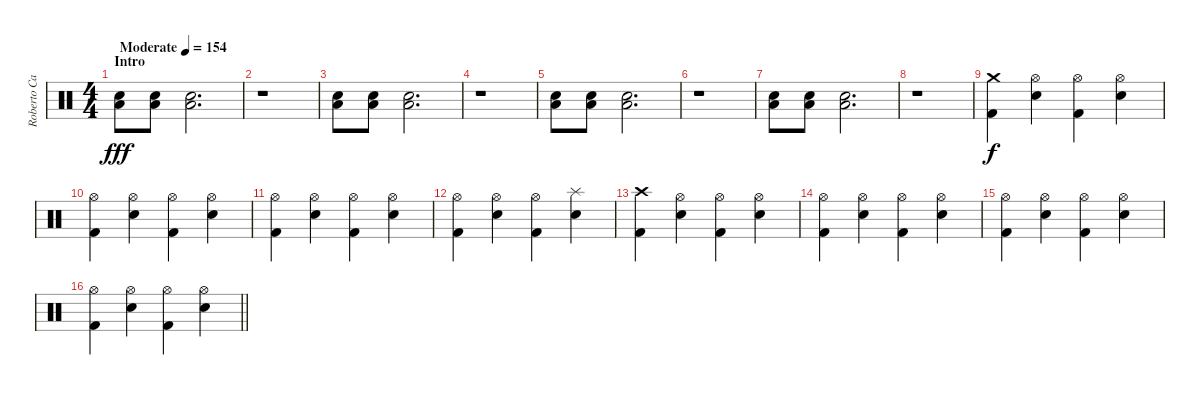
\track ("Roberto Cappa - Drums" "Roberto Ca") {instrument percussion}
\staff
\articulation defaults
\ts (4 4)
\section ("" "Intro")
\tempo (154 "Moderate")
\clef neutral
\ks c
("Electric Snare (hit)" "Low Floor Tom (hit)").8{dy fff} ("Electric Snare (hit)" "Low Floor Tom (hit)").8 ("Electric Snare (hit)" "Low Floor Tom (hit)").2{d} |
r.1 |
("Electric Snare (hit)" "Low Floor Tom (hit)").8 ("Electric Snare (hit)" "Low Floor Tom (hit)").8 ("Electric Snare (hit)" "Low Floor Tom (hit)").2{d} |
r.1 |
("Electric Snare (hit)" "Low Floor Tom (hit)").8 ("Electric Snare (hit)" "Low Floor Tom (hit)").8 ("Electric Snare (hit)" "Low Floor Tom (hit)").2{d} |
r.1 |
("Electric Snare (hit)" "Low Floor Tom (hit)").8 ("Electric Snare (hit)" "Low Floor Tom (hit)").8 ("Electric Snare (hit)" "Low Floor Tom (hit)").2{d} |
r.1 |
("Crash medium (hit)" "Kick (hit) 2").4{dy f} ("Hi-Hat (open)" "Electric Snare (hit)").4 ("Hi-Hat (open)" "Kick (hit) 2").4 ("Hi-Hat (open)" "Electric Snare (hit)").4 |
("Hi-Hat (open)" "Kick (hit) 2").4 ("Hi-Hat (open)" "Electric Snare (hit)").4 ("Hi-Hat (open)" "Kick (hit) 2").4 ("Hi-Hat (open)" "Electric Snare (hit)").4 |
("Hi-Hat (open)" "Kick (hit) 2").4 ("Hi-Hat (open)" "Electric Snare (hit)").4 ("Hi-Hat (open)" "Kick (hit) 2").4 ("Hi-Hat (open)" "Electric Snare (hit)").4 |
("Hi-Hat (open)" "Kick (hit) 2").4 ("Hi-Hat (open)" "Electric Snare (hit)").4 ("Hi-Hat (open)" "Kick (hit) 2").4 ("Splash (hit)" "Electric Snare (hit)").4 |
("Crash high (hit)" "Kick (hit) 2").4 ("Hi-Hat (open)" "Electric Snare (hit)").4 ("Hi-Hat (open)" "Kick (hit) 2").4 ("Hi-Hat (open)" "Electric Snare (hit)").4 |
("Hi-Hat (open)" "Kick (hit) 2").4 ("Hi-Hat (open)" "Electric Snare (hit)").4 ("Hi-Hat (open)" "Kick (hit) 2").4 ("Hi-Hat (open)" "Electric Snare (hit)").4 |
("Hi-Hat (open)" "Kick (hit) 2").4 ("Hi-Hat (open)" "Electric Snare (hit)").4 ("Hi-Hat (open)" "Kick (hit) 2").4 ("Hi-Hat (open)" "Electric Snare (hit)").4 |
\barLineRight lightlight
("Hi-Hat (open)" "Kick (hit) 2").4 ("Hi-Hat (open)" "Electric Snare (hit)").4 ("Hi-Hat (open)" "Kick (hit) 2").4 ("Hi-Hat (open)" "Electric Snare (hit)").4
